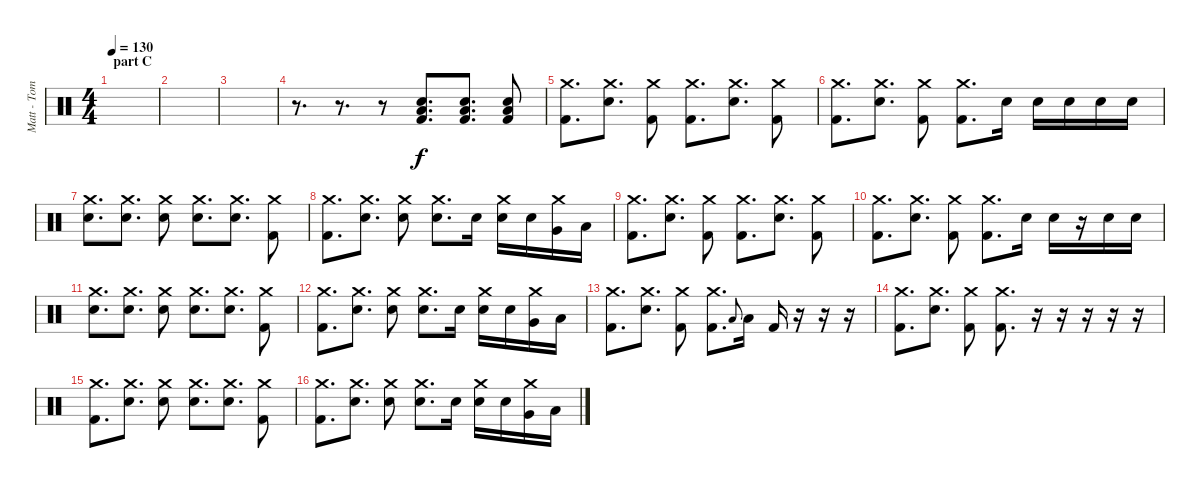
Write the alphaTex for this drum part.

\track ("Matt - Tom" "Matt - Tom") {instrument percussion}
\staff {score}
\articulation defaults
\ts (4 4)
\section ("" "part C")
\tempo 130
\clef neutral
\ks c
|
|
|
r.8{d} r.8{d} r.8 ("Electric Snare (hit)" "Low Floor Tom (hit)" "Kick (hit) 2").8{d} ("Electric Snare (hit)" "Low Floor Tom (hit)" "Kick (hit) 2").8{d} ("Electric Snare (hit)" "Low Floor Tom (hit)" "Kick (hit) 2").8 |
("Crash medium (hit)" "Kick (hit) 2").8{d} ("Crash medium (hit)" "Electric Snare (hit)").8{d} ("Crash medium (hit)" "Kick (hit) 2").8 ("Crash medium (hit)" "Kick (hit) 2").8{d} ("Crash medium (hit)" "Electric Snare (hit)").8{d} ("Crash medium (hit)" "Kick (hit) 2").8 |
("Crash medium (hit)" "Kick (hit) 2").8{d} ("Crash medium (hit)" "Electric Snare (hit)").8{d} ("Crash medium (hit)" "Kick (hit) 2").8 ("Crash medium (hit)" "Kick (hit) 2").8{d} "Electric Snare (hit)".16 "Electric Snare (hit)".16 "Electric Snare (hit)".16 "Electric Snare (hit)".16 "Electric Snare (hit)".16 |
("Crash medium (hit)" "Electric Snare (hit)").8{d} ("Crash medium (hit)" "Electric Snare (hit)").8{d} ("Crash medium (hit)" "Electric Snare (hit)").8 ("Crash medium (hit)" "Electric Snare (hit)").8{d} ("Crash medium (hit)" "Electric Snare (hit)").8{d} ("Crash medium (hit)" "Kick (hit) 2").8 |
("Crash medium (hit)" "Kick (hit) 2").8{d} ("Crash medium (hit)" "Electric Snare (hit)").8{d} ("Crash medium (hit)" "Electric Snare (hit)").8 ("Crash medium (hit)" "Electric Snare (hit)").8{d} "Electric Snare (hit)".16 ("Crash medium (hit)" "Electric Snare (hit)").16 "Electric Snare (hit)".16 ("Crash medium (hit)" "Very Low Tom (hit)").16 "Low Floor Tom (hit)".16 |
("Crash medium (hit)" "Kick (hit) 2").8{d} ("Crash medium (hit)" "Electric Snare (hit)").8{d} ("Crash medium (hit)" "Kick (hit) 2").8 ("Crash medium (hit)" "Kick (hit) 2").8{d} ("Crash medium (hit)" "Electric Snare (hit)").8{d} ("Crash medium (hit)" "Kick (hit) 2").8 |
("Crash medium (hit)" "Kick (hit) 2").8{d} ("Crash medium (hit)" "Electric Snare (hit)").8{d} ("Crash medium (hit)" "Kick (hit) 2").8 ("Crash medium (hit)" "Kick (hit) 2").8{d} "Electric Snare (hit)".16 "Electric Snare (hit)".16 r.16 "Electric Snare (hit)".16 "Electric Snare (hit)".16 |
("Crash medium (hit)" "Electric Snare (hit)").8{d} ("Crash medium (hit)" "Electric Snare (hit)").8{d} ("Crash medium (hit)" "Electric Snare (hit)").8 ("Crash medium (hit)" "Electric Snare (hit)").8{d} ("Crash medium (hit)" "Electric Snare (hit)").8{d} ("Crash medium (hit)" "Kick (hit) 2").8 |
("Crash medium (hit)" "Kick (hit) 2").8{d} ("Crash medium (hit)" "Electric Snare (hit)").8{d} ("Crash medium (hit)" "Electric Snare (hit)").8 ("Crash medium (hit)" "Electric Snare (hit)").8{d} "Electric Snare (hit)".16 ("Crash medium (hit)" "Electric Snare (hit)").16 "Electric Snare (hit)".16 ("Crash medium (hit)" "Very Low Tom (hit)").16 "Low Floor Tom (hit)".16 |
("Crash medium (hit)" "Kick (hit) 2").8{d} ("Crash medium (hit)" "Electric Snare (hit)").8{d} ("Crash medium (hit)" "Kick (hit) 2").8 ("Crash medium (hit)" "Kick (hit) 2").8{d} "Low Floor Tom (hit)".8{gr onbeat} "Low Floor Tom (hit)".16 "Kick (hit) 2".16 r.16 r.16 r.16 |
("Crash medium (hit)" "Kick (hit) 2").8{d} ("Crash medium (hit)" "Electric Snare (hit)").8{d} ("Crash medium (hit)" "Kick (hit) 2").8 ("Crash medium (hit)" "Kick (hit) 2").8{d} r.16 r.16 r.16 r.16 r.16 |
("Crash medium (hit)" "Kick (hit) 2").8{d} ("Crash medium (hit)" "Electric Snare (hit)").8{d} ("Crash medium (hit)" "Electric Snare (hit)").8 ("Crash medium (hit)" "Electric Snare (hit)").8{d} ("Crash medium (hit)" "Electric Snare (hit)").8{d} ("Crash medium (hit)" "Kick (hit) 2").8 |
("Crash medium (hit)" "Kick (hit) 2").8{d} ("Crash medium (hit)" "Electric Snare (hit)").8{d} ("Crash medium (hit)" "Electric Snare (hit)").8 ("Crash medium (hit)" "Electric Snare (hit)").8{d} "Electric Snare (hit)".16 ("Crash medium (hit)" "Electric Snare (hit)").16 "Electric Snare (hit)".16 ("Crash medium (hit)" "Very Low Tom (hit)").16 "Low Floor Tom (hit)".16
